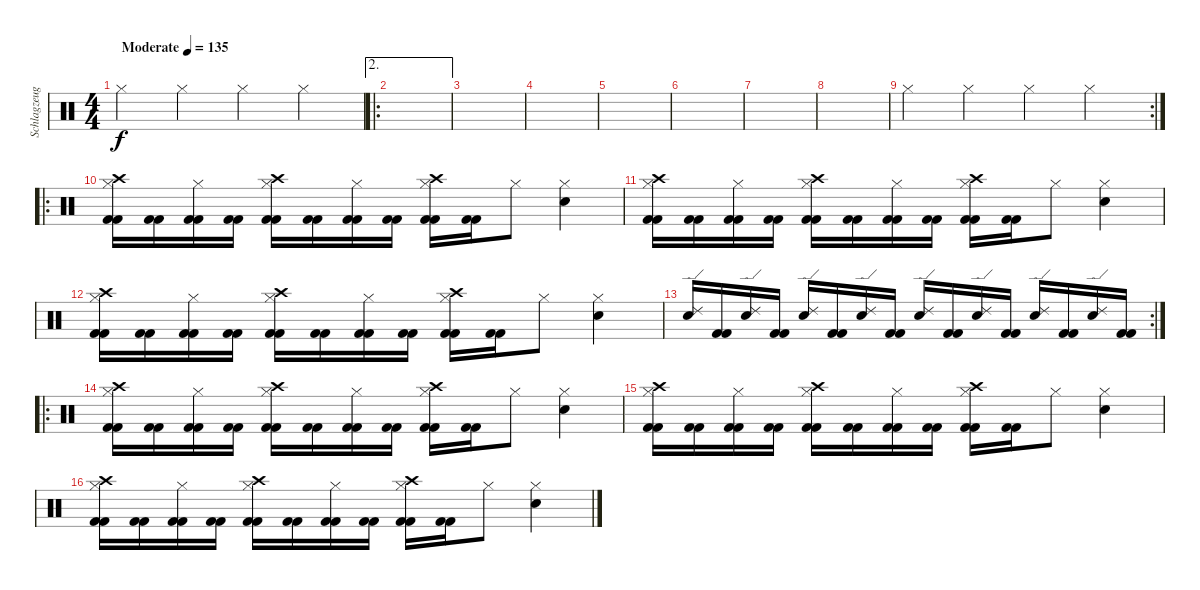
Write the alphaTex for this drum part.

\track ("Schlagzeug" "Schlagzeug") {instrument percussion}
\staff {score}
\articulation defaults
\ts (4 4)
\tempo (135 "Moderate")
\clef neutral
\ks c "Hi-Hat (closed)".4{dy f} "Hi-Hat (closed)".4 "Hi-Hat (closed)".4 "Hi-Hat (closed)".4
|
\ae 2
\ro
|
|
|
|
|
|
|
\rc 2 "Hi-Hat (closed)".4 "Hi-Hat (closed)".4 "Hi-Hat (closed)".4 "Hi-Hat (closed)".4
|
\ro
("Hi-Hat (closed)" "Crash high (hit)" "Kick (hit) 2" "Kick (hit) 2").16 ("Kick (hit) 2" "Kick (hit) 2").16 ("Hi-Hat (closed)" "Kick (hit) 2" "Kick (hit) 2").16 ("Kick (hit) 2" "Kick (hit) 2").16 ("Hi-Hat (closed)" "Crash high (hit)" "Kick (hit) 2" "Kick (hit) 2").16 ("Kick (hit) 2" "Kick (hit) 2").16 ("Hi-Hat (closed)" "Kick (hit) 2" "Kick (hit) 2").16 ("Kick (hit) 2" "Kick (hit) 2").16 ("Hi-Hat (closed)" "Crash high (hit)" "Kick (hit) 2" "Kick (hit) 2").16 ("Kick (hit) 2" "Kick (hit) 2").16 "Hi-Hat (closed)".8 ("Hi-Hat (closed)" "Snare (hit) 2").4 |
("Hi-Hat (closed)" "Crash high (hit)" "Kick (hit) 2" "Kick (hit) 2").16 ("Kick (hit) 2" "Kick (hit) 2").16 ("Hi-Hat (closed)" "Kick (hit) 2" "Kick (hit) 2").16 ("Kick (hit) 2" "Kick (hit) 2").16 ("Hi-Hat (closed)" "Crash high (hit)" "Kick (hit) 2" "Kick (hit) 2").16 ("Kick (hit) 2" "Kick (hit) 2").16 ("Hi-Hat (closed)" "Kick (hit) 2" "Kick (hit) 2").16 ("Kick (hit) 2" "Kick (hit) 2").16 ("Hi-Hat (closed)" "Crash high (hit)" "Kick (hit) 2" "Kick (hit) 2").16 ("Kick (hit) 2" "Kick (hit) 2").16 "Hi-Hat (closed)".8 ("Hi-Hat (closed)" "Snare (hit) 2").4 |
("Hi-Hat (closed)" "Crash high (hit)" "Kick (hit) 2" "Kick (hit) 2").16 ("Kick (hit) 2" "Kick (hit) 2").16 ("Hi-Hat (closed)" "Kick (hit) 2" "Kick (hit) 2").16 ("Kick (hit) 2" "Kick (hit) 2").16 ("Hi-Hat (closed)" "Crash high (hit)" "Kick (hit) 2" "Kick (hit) 2").16 ("Kick (hit) 2" "Kick (hit) 2").16 ("Hi-Hat (closed)" "Kick (hit) 2" "Kick (hit) 2").16 ("Kick (hit) 2" "Kick (hit) 2").16 ("Hi-Hat (closed)" "Crash high (hit)" "Kick (hit) 2" "Kick (hit) 2").16 ("Kick (hit) 2" "Kick (hit) 2").16 "Hi-Hat (closed)".8 ("Hi-Hat (closed)" "Snare (hit) 2").4 |
\rc 2
("Ride (edge) 2" "Snare (hit) 2").16 ("Kick (hit) 2" "Kick (hit) 2").16 ("Ride (edge) 2" "Snare (hit) 2").16 ("Kick (hit) 2" "Kick (hit) 2").16 ("Ride (edge) 2" "Snare (hit) 2").16 ("Kick (hit) 2" "Kick (hit) 2").16 ("Ride (edge) 2" "Snare (hit) 2").16 ("Kick (hit) 2" "Kick (hit) 2").16 ("Ride (edge) 2" "Snare (hit) 2").16 ("Kick (hit) 2" "Kick (hit) 2").16 ("Ride (edge) 2" "Snare (hit) 2").16 ("Kick (hit) 2" "Kick (hit) 2").16 ("Ride (edge) 2" "Snare (hit) 2").16 ("Kick (hit) 2" "Kick (hit) 2").16 ("Ride (edge) 2" "Snare (hit) 2").16 ("Kick (hit) 2" "Kick (hit) 2").16 |
\ro
("Hi-Hat (closed)" "Crash high (hit)" "Kick (hit) 2" "Kick (hit) 2").16 ("Kick (hit) 2" "Kick (hit) 2").16 ("Hi-Hat (closed)" "Kick (hit) 2" "Kick (hit) 2").16 ("Kick (hit) 2" "Kick (hit) 2").16 ("Hi-Hat (closed)" "Crash high (hit)" "Kick (hit) 2" "Kick (hit) 2").16 ("Kick (hit) 2" "Kick (hit) 2").16 ("Hi-Hat (closed)" "Kick (hit) 2" "Kick (hit) 2").16 ("Kick (hit) 2" "Kick (hit) 2").16 ("Hi-Hat (closed)" "Crash high (hit)" "Kick (hit) 2" "Kick (hit) 2").16 ("Kick (hit) 2" "Kick (hit) 2").16 "Hi-Hat (closed)".8 ("Hi-Hat (closed)" "Snare (hit) 2").4 |
("Hi-Hat (closed)" "Crash high (hit)" "Kick (hit) 2" "Kick (hit) 2").16 ("Kick (hit) 2" "Kick (hit) 2").16 ("Hi-Hat (closed)" "Kick (hit) 2" "Kick (hit) 2").16 ("Kick (hit) 2" "Kick (hit) 2").16 ("Hi-Hat (closed)" "Crash high (hit)" "Kick (hit) 2" "Kick (hit) 2").16 ("Kick (hit) 2" "Kick (hit) 2").16 ("Hi-Hat (closed)" "Kick (hit) 2" "Kick (hit) 2").16 ("Kick (hit) 2" "Kick (hit) 2").16 ("Hi-Hat (closed)" "Crash high (hit)" "Kick (hit) 2" "Kick (hit) 2").16 ("Kick (hit) 2" "Kick (hit) 2").16 "Hi-Hat (closed)".8 ("Hi-Hat (closed)" "Snare (hit) 2").4 |
("Hi-Hat (closed)" "Crash high (hit)" "Kick (hit) 2" "Kick (hit) 2").16 ("Kick (hit) 2" "Kick (hit) 2").16 ("Hi-Hat (closed)" "Kick (hit) 2" "Kick (hit) 2").16 ("Kick (hit) 2" "Kick (hit) 2").16 ("Hi-Hat (closed)" "Crash high (hit)" "Kick (hit) 2" "Kick (hit) 2").16 ("Kick (hit) 2" "Kick (hit) 2").16 ("Hi-Hat (closed)" "Kick (hit) 2" "Kick (hit) 2").16 ("Kick (hit) 2" "Kick (hit) 2").16 ("Hi-Hat (closed)" "Crash high (hit)" "Kick (hit) 2" "Kick (hit) 2").16 ("Kick (hit) 2" "Kick (hit) 2").16 "Hi-Hat (closed)".8 ("Hi-Hat (closed)" "Snare (hit) 2").4
